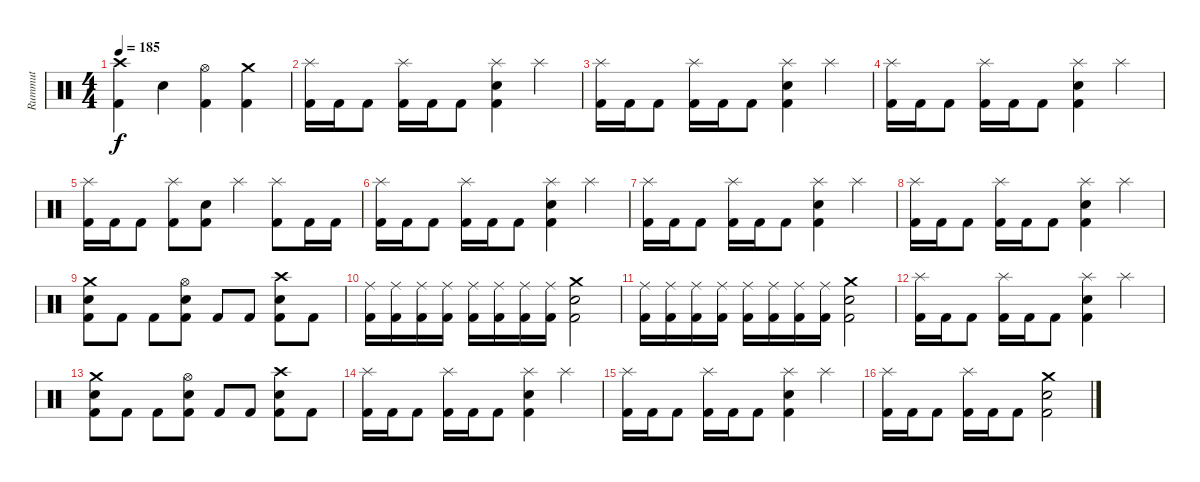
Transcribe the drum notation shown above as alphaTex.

\track ("Rummut" "Rummut") {instrument percussion}
\staff {score}
\articulation defaults
\ts (4 4)
\tempo 185
\clef neutral
\ks c
("Crash high (hit)" "Kick (hit) 2").4{dy f} "Electric Snare (hit)".4 ("Hi-Hat (open)" "Kick (hit) 2").4 ("Crash medium (hit)" "Kick (hit) 2").4 |
("Splash (hit)" "Kick (hit) 2").16 "Kick (hit) 2".16 "Kick (hit) 2".8 ("Splash (hit)" "Kick (hit) 2").16 "Kick (hit) 2".16 "Kick (hit) 2".8 ("Splash (hit)" "Electric Snare (hit)" "Kick (hit) 2").4 "Splash (hit)".4 |
("Splash (hit)" "Kick (hit) 2").16 "Kick (hit) 2".16 "Kick (hit) 2".8 ("Splash (hit)" "Kick (hit) 2").16 "Kick (hit) 2".16 "Kick (hit) 2".8 ("Splash (hit)" "Electric Snare (hit)" "Kick (hit) 2").4 "Splash (hit)".4 |
("Splash (hit)" "Kick (hit) 2").16 "Kick (hit) 2".16 "Kick (hit) 2".8 ("Splash (hit)" "Kick (hit) 2").16 "Kick (hit) 2".16 "Kick (hit) 2".8 ("Splash (hit)" "Electric Snare (hit)" "Kick (hit) 2").4 "Splash (hit)".4 |
("Splash (hit)" "Kick (hit) 2").16 "Kick (hit) 2".16 "Kick (hit) 2".8 ("Splash (hit)" "Kick (hit) 2").8 ("Electric Snare (hit)" "Kick (hit) 2").8 "Splash (hit)".4 ("Splash (hit)" "Kick (hit) 2").8 "Kick (hit) 2".16 "Kick (hit) 2".16 |
("Splash (hit)" "Kick (hit) 2").16 "Kick (hit) 2".16 "Kick (hit) 2".8 ("Splash (hit)" "Kick (hit) 2").16 "Kick (hit) 2".16 "Kick (hit) 2".8 ("Splash (hit)" "Electric Snare (hit)" "Kick (hit) 2").4 "Splash (hit)".4 |
("Splash (hit)" "Kick (hit) 2").16 "Kick (hit) 2".16 "Kick (hit) 2".8 ("Splash (hit)" "Kick (hit) 2").16 "Kick (hit) 2".16 "Kick (hit) 2".8 ("Splash (hit)" "Electric Snare (hit)" "Kick (hit) 2").4 "Splash (hit)".4 |
("Splash (hit)" "Kick (hit) 2").16 "Kick (hit) 2".16 "Kick (hit) 2".8 ("Splash (hit)" "Kick (hit) 2").16 "Kick (hit) 2".16 "Kick (hit) 2".8 ("Splash (hit)" "Electric Snare (hit)" "Kick (hit) 2").4 "Splash (hit)".4 |
("Crash medium (hit)" "Electric Snare (hit)" "Kick (hit) 2").8 "Kick (hit) 2".8 "Kick (hit) 2".8 ("Hi-Hat (open)" "Electric Snare (hit)" "Kick (hit) 2").8 "Kick (hit) 2".8 "Kick (hit) 2".8 ("Crash high (hit)" "Electric Snare (hit)" "Kick (hit) 2").8 "Kick (hit) 2".8 |
("Ride (middle)" "Kick (hit) 2").16 ("Ride (middle)" "Kick (hit) 2").16 ("Ride (middle)" "Kick (hit) 2").16 ("Ride (middle)" "Kick (hit) 2").16 ("Ride (middle)" "Kick (hit) 2").16 ("Ride (middle)" "Kick (hit) 2").16 ("Ride (middle)" "Kick (hit) 2").16 ("Ride (middle)" "Kick (hit) 2").16 ("Crash medium (hit)" "Electric Snare (hit)" "Kick (hit) 2").2 |
("Ride (middle)" "Kick (hit) 2").16 ("Ride (middle)" "Kick (hit) 2").16 ("Ride (middle)" "Kick (hit) 2").16 ("Ride (middle)" "Kick (hit) 2").16 ("Ride (middle)" "Kick (hit) 2").16 ("Ride (middle)" "Kick (hit) 2").16 ("Ride (middle)" "Kick (hit) 2").16 ("Ride (middle)" "Kick (hit) 2").16 ("Crash medium (hit)" "Electric Snare (hit)" "Kick (hit) 2").2 |
("Splash (hit)" "Kick (hit) 2").16 "Kick (hit) 2".16 "Kick (hit) 2".8 ("Splash (hit)" "Kick (hit) 2").16 "Kick (hit) 2".16 "Kick (hit) 2".8 ("Splash (hit)" "Electric Snare (hit)" "Kick (hit) 2").4 "Splash (hit)".4 |
("Crash medium (hit)" "Electric Snare (hit)" "Kick (hit) 2").8 "Kick (hit) 2".8 "Kick (hit) 2".8 ("Hi-Hat (open)" "Electric Snare (hit)" "Kick (hit) 2").8 "Kick (hit) 2".8 "Kick (hit) 2".8 ("Crash high (hit)" "Electric Snare (hit)" "Kick (hit) 2").8 "Kick (hit) 2".8 |
("Splash (hit)" "Kick (hit) 2").16 "Kick (hit) 2".16 "Kick (hit) 2".8 ("Splash (hit)" "Kick (hit) 2").16 "Kick (hit) 2".16 "Kick (hit) 2".8 ("Splash (hit)" "Electric Snare (hit)" "Kick (hit) 2").4 "Splash (hit)".4 |
("Splash (hit)" "Kick (hit) 2").16 "Kick (hit) 2".16 "Kick (hit) 2".8 ("Splash (hit)" "Kick (hit) 2").16 "Kick (hit) 2".16 "Kick (hit) 2".8 ("Splash (hit)" "Electric Snare (hit)" "Kick (hit) 2").4 "Splash (hit)".4 |
("Splash (hit)" "Kick (hit) 2").16 "Kick (hit) 2".16 "Kick (hit) 2".8 ("Splash (hit)" "Kick (hit) 2").16 "Kick (hit) 2".16 "Kick (hit) 2".8 ("Crash medium (hit)" "Electric Snare (hit)" "Kick (hit) 2").2
